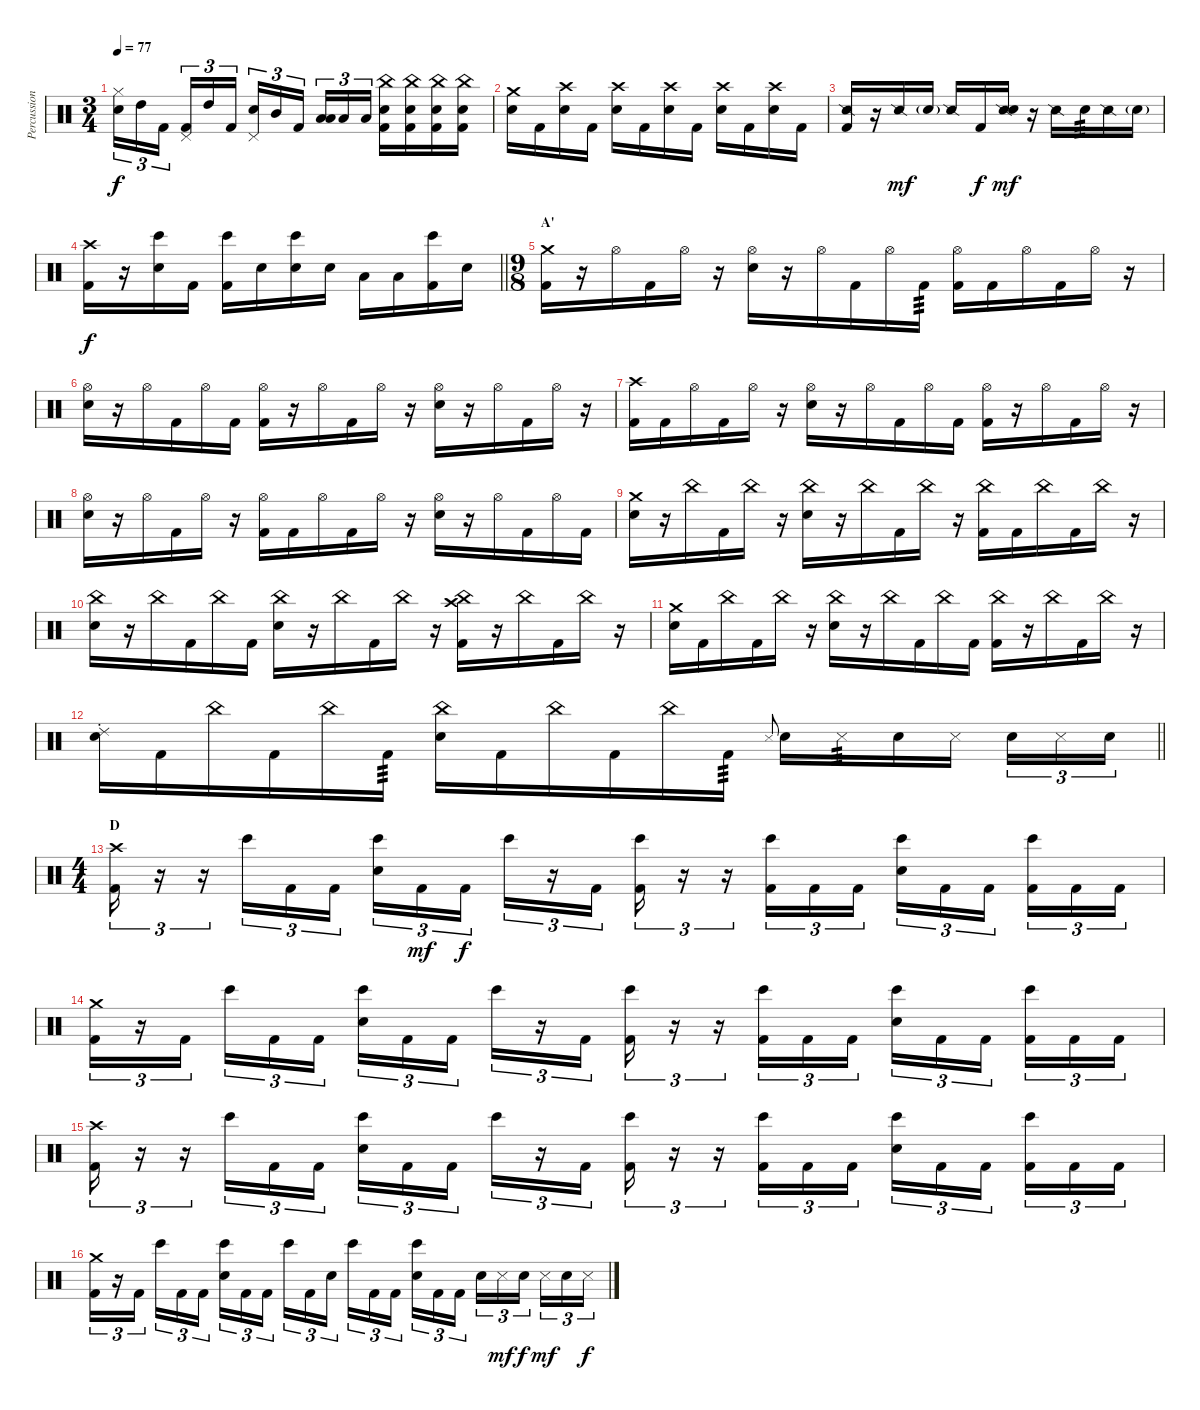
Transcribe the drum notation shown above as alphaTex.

\track ("Percussion" "Percussion") {instrument percussion}
\staff {score}
\articulation defaults
\ts (3 4)
\tempo 77
\clef neutral
\ks c
("Hi-Hat (closed)" "Snare (hit) 2").16{tu (3 2) dy f} "High Tom (hit)".16{tu (3 2)} "Kick (hit) 2".16{tu (3 2) beam splitsecondary} ("Pedal Hi-Hat (hit)" "Kick (hit) 2").16{tu (3 2)} "High Tom (hit)".16{tu (3 2)} "Kick (hit) 2".16{tu (3 2)} ("Pedal Hi-Hat (hit)" "Snare (hit) 2").16{tu (3 2)} "Mid Tom (hit)".16{tu (3 2)} "Kick (hit) 2".16{tu (3 2) beam splitsecondary} ("Low Floor Tom (hit)" "Low Floor Tom (hit)").16{tu (3 2) bu 60} "Low Floor Tom (hit)".16{tu (3 2)} "Low Floor Tom (hit)".16{tu (3 2)} ("China (hit)" "Snare (hit) 2" "Kick (hit) 2").16 ("China (hit)" "Snare (hit) 2" "Kick (hit) 2").16 ("China (hit)" "Snare (hit) 2" "Kick (hit) 2").16 ("China (hit)" "Snare (hit) 2" "Kick (hit) 2").16 |
("Crash medium (hit)" "Snare (hit) 2").16 "Kick (hit) 2".16 ("Crash high (hit)" "Snare (hit) 2").16 "Kick (hit) 2".16 ("Crash high (hit)" "Snare (hit) 2").16 "Kick (hit) 2".16 ("Crash high (hit)" "Snare (hit) 2").16 "Kick (hit) 2".16 ("Crash high (hit)" "Snare (hit) 2").16 "Kick (hit) 2".16 ("Crash high (hit)" "Snare (hit) 2").16 "Kick (hit) 2".16 |
("Snare (side stick) 2" "Kick (hit) 2").16 r.16 "Snare (side stick) 2".16{dy mf} "Snare (hit) 2"{g}.16 "Snare (side stick) 2".16 "Kick (hit) 2".16{dy f} ("Snare (side stick) 2" "Snare (hit) 2").16{dy mf} r.16 "Snare (side stick) 2".16 "Snare (hit) 2".16{tp 3} "Snare (side stick) 2".16 "Snare (hit) 2"{g}.16 |
\barLineRight lightlight
("Crash high (hit)" "Kick (hit) 2").16{dy f} r.16 ("Bongo High (hit)" "Snare (hit) 2").16 "Kick (hit) 2".16 ("Bongo High (hit)" "Kick (hit) 2").16 "Snare (hit) 2".16 ("Bongo High (hit)" "Snare (hit) 2").16 "Snare (hit) 2".16 "Low Tom (hit)".16 "Low Tom (hit)".16 ("Bongo High (hit)" "Kick (hit) 2").16 "Snare (hit) 2".16 |
\ts (9 8)
\section ("" "A'")
("Crash medium (hit)" "Kick (hit) 2").16 r.16 "Hi-Hat (open)".16 "Kick (hit) 2".16 "Hi-Hat (open)".16 r.16 ("Hi-Hat (open)" "Snare (hit) 2").16 r.16 "Hi-Hat (open)".16 "Kick (hit) 2".16 "Hi-Hat (open)".16 "Kick (hit) 2".16{tp 3} ("Hi-Hat (open)" "Kick (hit) 2").16 "Kick (hit) 2".16 "Hi-Hat (open)".16 "Kick (hit) 2".16 "Hi-Hat (open)".16 r.16 |
("Hi-Hat (open)" "Snare (hit) 2").16 r.16 "Hi-Hat (open)".16 "Kick (hit) 2".16 "Hi-Hat (open)".16 "Kick (hit) 2".16 ("Hi-Hat (open)" "Kick (hit) 2").16 r.16 "Hi-Hat (open)".16 "Kick (hit) 2".16 "Hi-Hat (open)".16 r.16 ("Hi-Hat (open)" "Snare (hit) 2").16 r.16 "Hi-Hat (open)".16 "Kick (hit) 2".16 "Hi-Hat (open)".16 r.16 |
("Crash high (hit)" "Kick (hit) 2").16 "Kick (hit) 2".16 "Hi-Hat (open)".16 "Kick (hit) 2".16 "Hi-Hat (open)".16 r.16 ("Hi-Hat (open)" "Snare (hit) 2").16 r.16 "Hi-Hat (open)".16 "Kick (hit) 2".16 "Hi-Hat (open)".16 "Kick (hit) 2".16 ("Hi-Hat (open)" "Kick (hit) 2").16 r.16 "Hi-Hat (open)".16 "Kick (hit) 2".16 "Hi-Hat (open)".16 r.16 |
("Hi-Hat (open)" "Snare (hit) 2").16 r.16 "Hi-Hat (open)".16 "Kick (hit) 2".16 "Hi-Hat (open)".16 r.16 ("Hi-Hat (open)" "Kick (hit) 2").16 "Kick (hit) 2".16 "Hi-Hat (open)".16 "Kick (hit) 2".16 "Hi-Hat (open)".16 r.16 ("Hi-Hat (open)" "Snare (hit) 2").16 r.16 "Hi-Hat (open)".16 "Kick (hit) 2".16 "Hi-Hat (open)".16 "Kick (hit) 2".16 |
("Crash medium (hit)" "Snare (hit) 2").16 r.16 "China (hit)".16 "Kick (hit) 2".16 "China (hit)".16 r.16 ("China (hit)" "Snare (hit) 2").16 r.16 "China (hit)".16 "Kick (hit) 2".16 "China (hit)".16 r.16 ("China (hit)" "Kick (hit) 2").16 "Kick (hit) 2".16 "China (hit)".16 "Kick (hit) 2".16 "China (hit)".16 r.16 |
("China (hit)" "Snare (hit) 2").16 r.16 "China (hit)".16 "Kick (hit) 2".16 "China (hit)".16 "Kick (hit) 2".16 ("China (hit)" "Snare (hit) 2").16 r.16 "China (hit)".16 "Kick (hit) 2".16 "China (hit)".16 r.16 ("China (hit)" "Crash high (hit)" "Kick (hit) 2").16 r.16 "China (hit)".16 "Kick (hit) 2".16 "China (hit)".16 r.16 |
("Crash medium (hit)" "Snare (hit) 2").16 "Kick (hit) 2".16 "China (hit)".16 "Kick (hit) 2".16 "China (hit)".16 r.16 ("China (hit)" "Snare (hit) 2").16 r.16 "China (hit)".16 "Kick (hit) 2".16 "China (hit)".16 "Kick (hit) 2".16 ("China (hit)" "Kick (hit) 2").16 r.16 "China (hit)".16 "Kick (hit) 2".16 "China (hit)".16 r.16 |
\barLineRight lightlight
("Ride (choke) 2" "Snare (hit) 2").16 "Kick (hit) 2".16 "China (hit)".16 "Kick (hit) 2".16 "China (hit)".16 "Kick (hit) 2".16{tp 3} ("China (hit)" "Snare (hit) 2").16 "Kick (hit) 2".16 "China (hit)".16 "Kick (hit) 2".16 "China (hit)".16 "Kick (hit) 2".16{tp 3} "Metronome (hit)".8{gr onbeat} "Snare (hit) 2".16 "Metronome (hit)".16{tp 3} "Snare (hit) 2".16 "Metronome (hit)".16{beam splitsecondary} "Snare (hit) 2".16{tu (3 2)} "Metronome (hit)".16{tu (3 2)} "Snare (hit) 2".16{tu (3 2)} |
\ts (4 4)
\section ("" "D")
("Crash high (hit)" "Kick (hit) 2").16{tu (3 2)} r.16{tu (3 2)} r.16{tu (3 2)} "Bongo High (hit)".16{tu (3 2)} "Kick (hit) 2".16{tu (3 2)} "Kick (hit) 2".16{tu (3 2)} ("Bongo High (hit)" "Snare (hit) 2").16{tu (3 2)} "Kick (hit) 2".16{tu (3 2) dy mf} "Kick (hit) 2".16{tu (3 2) dy f beam splitsecondary} "Bongo High (hit)".16{tu (3 2)} r.16{tu (3 2)} "Kick (hit) 2".16{tu (3 2)} ("Bongo High (hit)" "Kick (hit) 2").16{tu (3 2)} r.16{tu (3 2)} r.16{tu (3 2)} ("Bongo High (hit)" "Kick (hit) 2").16{tu (3 2)} "Kick (hit) 2".16{tu (3 2)} "Kick (hit) 2".16{tu (3 2)} ("Bongo High (hit)" "Snare (hit) 2").16{tu (3 2)} "Kick (hit) 2".16{tu (3 2)} "Kick (hit) 2".16{tu (3 2) beam splitsecondary} ("Bongo High (hit)" "Kick (hit) 2").16{tu (3 2)} "Kick (hit) 2".16{tu (3 2)} "Kick (hit) 2".16{tu (3 2)} |
("Crash medium (hit)" "Kick (hit) 2").16{tu (3 2)} r.16{tu (3 2)} "Kick (hit) 2".16{tu (3 2) beam splitsecondary} "Bongo High (hit)".16{tu (3 2)} "Kick (hit) 2".16{tu (3 2)} "Kick (hit) 2".16{tu (3 2)} ("Bongo High (hit)" "Snare (hit) 2").16{tu (3 2)} "Kick (hit) 2".16{tu (3 2)} "Kick (hit) 2".16{tu (3 2) beam splitsecondary} "Bongo High (hit)".16{tu (3 2)} r.16{tu (3 2)} "Kick (hit) 2".16{tu (3 2)} ("Bongo High (hit)" "Kick (hit) 2").16{tu (3 2)} r.16{tu (3 2)} r.16{tu (3 2)} ("Bongo High (hit)" "Kick (hit) 2").16{tu (3 2)} "Kick (hit) 2".16{tu (3 2)} "Kick (hit) 2".16{tu (3 2)} ("Bongo High (hit)" "Snare (hit) 2").16{tu (3 2)} "Kick (hit) 2".16{tu (3 2)} "Kick (hit) 2".16{tu (3 2) beam splitsecondary} ("Bongo High (hit)" "Kick (hit) 2").16{tu (3 2)} "Kick (hit) 2".16{tu (3 2)} "Kick (hit) 2".16{tu (3 2)} |
("Crash high (hit)" "Kick (hit) 2").16{tu (3 2)} r.16{tu (3 2)} r.16{tu (3 2)} "Bongo High (hit)".16{tu (3 2)} "Kick (hit) 2".16{tu (3 2)} "Kick (hit) 2".16{tu (3 2)} ("Bongo High (hit)" "Snare (hit) 2").16{tu (3 2)} "Kick (hit) 2".16{tu (3 2)} "Kick (hit) 2".16{tu (3 2) beam splitsecondary} "Bongo High (hit)".16{tu (3 2)} r.16{tu (3 2)} "Kick (hit) 2".16{tu (3 2)} ("Bongo High (hit)" "Kick (hit) 2").16{tu (3 2)} r.16{tu (3 2)} r.16{tu (3 2)} ("Bongo High (hit)" "Kick (hit) 2").16{tu (3 2)} "Kick (hit) 2".16{tu (3 2)} "Kick (hit) 2".16{tu (3 2)} ("Bongo High (hit)" "Snare (hit) 2").16{tu (3 2)} "Kick (hit) 2".16{tu (3 2)} "Kick (hit) 2".16{tu (3 2) beam splitsecondary} ("Bongo High (hit)" "Kick (hit) 2").16{tu (3 2)} "Kick (hit) 2".16{tu (3 2)} "Kick (hit) 2".16{tu (3 2)} |
("Crash medium (hit)" "Kick (hit) 2").16{tu (3 2)} r.16{tu (3 2)} "Kick (hit) 2".16{tu (3 2) beam splitsecondary} "Bongo High (hit)".16{tu (3 2)} "Kick (hit) 2".16{tu (3 2)} "Kick (hit) 2".16{tu (3 2)} ("Bongo High (hit)" "Snare (hit) 2").16{tu (3 2)} "Kick (hit) 2".16{tu (3 2)} "Kick (hit) 2".16{tu (3 2) beam splitsecondary} "Bongo High (hit)".16{tu (3 2)} "Kick (hit) 2".16{tu (3 2)} "Snare (hit) 2".16{tu (3 2)} "Bongo High (hit)".16{tu (3 2)} "Kick (hit) 2".16{tu (3 2)} "Kick (hit) 2".16{tu (3 2) beam splitsecondary} ("Bongo High (hit)" "Snare (hit) 2").16{tu (3 2)} "Kick (hit) 2".16{tu (3 2)} "Kick (hit) 2".16{tu (3 2)} "Snare (hit) 2".16{tu (3 2)} "Metronome (hit)".16{tu (3 2) dy mf} "Snare (hit) 2".16{tu (3 2) dy f beam splitsecondary} "Metronome (hit)".16{tu (3 2) dy mf} "Snare (hit) 2".16{tu (3 2)} "Metronome (hit)".16{tu (3 2) dy f}
